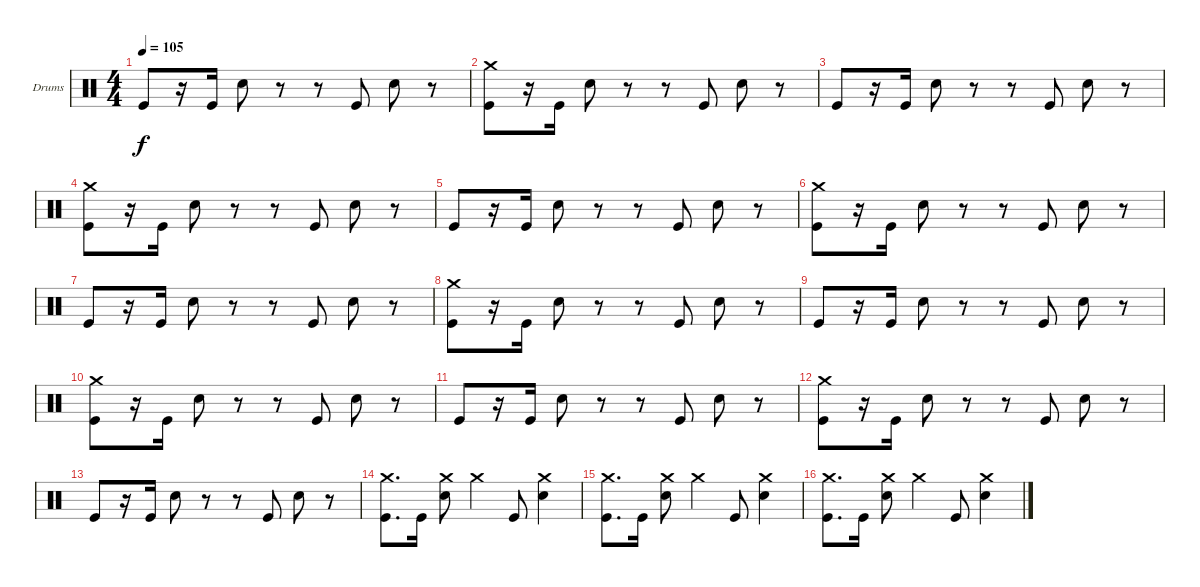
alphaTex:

\defaultSystemsLayout 4
\bracketExtendMode nobrackets
\firstSystemTrackNameOrientation horizontal
\otherSystemsTrackNameOrientation horizontal
\track ("Dave Krusen" "Drums") {instrument percussion}
\staff {score}
\articulation defaults
\ts (4 4)
\tempo 105
\clef neutral
\ks c "Kick (hit)".8{dy f}
r.16 "Kick (hit)".16 "Snare (hit) 2".8 r.8 r.8 "Kick (hit)".8 "Snare (hit) 2".8 r.8 |
("Crash medium (hit)" "Kick (hit)").8 r.16 "Kick (hit)".16 "Snare (hit) 2".8 r.8 r.8 "Kick (hit)".8 "Snare (hit) 2".8 r.8 |
"Kick (hit)".8 r.16 "Kick (hit)".16 "Snare (hit) 2".8 r.8 r.8 "Kick (hit)".8 "Snare (hit) 2".8 r.8 |
("Crash medium (hit)" "Kick (hit)").8 r.16 "Kick (hit)".16 "Snare (hit) 2".8 r.8 r.8 "Kick (hit)".8 "Snare (hit) 2".8 r.8 |
"Kick (hit)".8 r.16 "Kick (hit)".16 "Snare (hit) 2".8 r.8 r.8 "Kick (hit)".8 "Snare (hit) 2".8 r.8 |
("Crash medium (hit)" "Kick (hit)").8 r.16 "Kick (hit)".16 "Snare (hit) 2".8 r.8 r.8 "Kick (hit)".8 "Snare (hit) 2".8 r.8 |
"Kick (hit)".8 r.16 "Kick (hit)".16 "Snare (hit) 2".8 r.8 r.8 "Kick (hit)".8 "Snare (hit) 2".8 r.8 |
("Crash medium (hit)" "Kick (hit)").8 r.16 "Kick (hit)".16 "Snare (hit) 2".8 r.8 r.8 "Kick (hit)".8 "Snare (hit) 2".8 r.8 |
"Kick (hit)".8 r.16 "Kick (hit)".16 "Snare (hit) 2".8 r.8 r.8 "Kick (hit)".8 "Snare (hit) 2".8 r.8 |
("Crash medium (hit)" "Kick (hit)").8 r.16 "Kick (hit)".16 "Snare (hit) 2".8 r.8 r.8 "Kick (hit)".8 "Snare (hit) 2".8 r.8 |
"Kick (hit)".8 r.16 "Kick (hit)".16 "Snare (hit) 2".8 r.8 r.8 "Kick (hit)".8 "Snare (hit) 2".8 r.8 |
("Crash medium (hit)" "Kick (hit)").8 r.16 "Kick (hit)".16 "Snare (hit) 2".8 r.8 r.8 "Kick (hit)".8 "Snare (hit) 2".8 r.8 |
"Kick (hit)".8 r.16 "Kick (hit)".16 "Snare (hit) 2".8 r.8 r.8 "Kick (hit)".8 "Snare (hit) 2".8 r.8 |
("Crash medium (hit)" "Kick (hit)").8{d} "Kick (hit)".16 ("Crash medium (hit)" "Snare (hit) 2").8 "Crash medium (hit)".4 "Kick (hit)".8 ("Crash medium (hit)" "Snare (hit) 2").4 |
("Crash medium (hit)" "Kick (hit)").8{d} "Kick (hit)".16 ("Crash medium (hit)" "Snare (hit) 2").8 "Crash medium (hit)".4 "Kick (hit)".8 ("Crash medium (hit)" "Snare (hit) 2").4 |
("Crash medium (hit)" "Kick (hit)").8{d} "Kick (hit)".16 ("Crash medium (hit)" "Snare (hit) 2").8 "Crash medium (hit)".4 "Kick (hit)".8 ("Crash medium (hit)" "Snare (hit) 2").4
